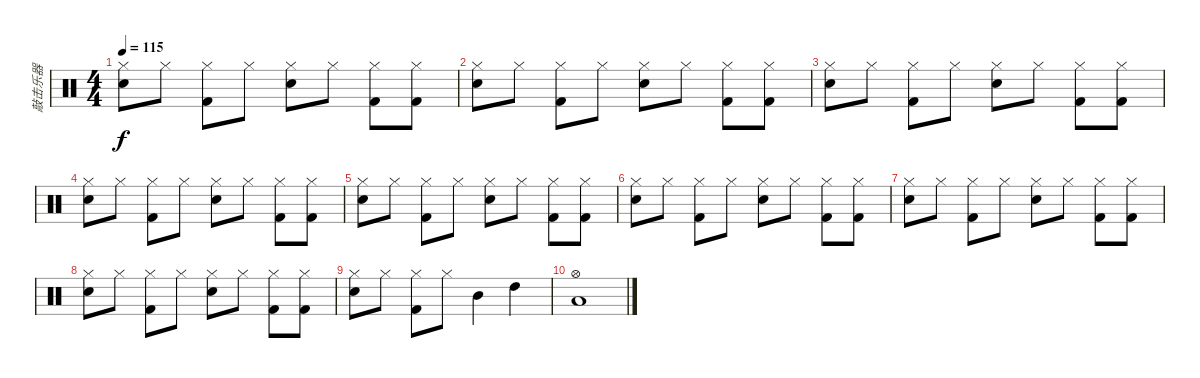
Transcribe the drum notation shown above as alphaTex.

\track ("敲击乐器" "敲击乐器") {instrument percussion}
\staff {score}
\articulation defaults
\ts (4 4)
\tempo 115
\clef neutral
\ks c
("Hi-Hat (closed)" "Electric Snare (hit)").8{dy f} "Hi-Hat (closed)".8 ("Hi-Hat (closed)" "Kick (hit) 2").8 "Hi-Hat (closed)".8 ("Hi-Hat (closed)" "Electric Snare (hit)").8 "Hi-Hat (closed)".8 ("Hi-Hat (closed)" "Kick (hit) 2").8 ("Hi-Hat (closed)" "Kick (hit) 2").8 |
("Hi-Hat (closed)" "Electric Snare (hit)").8 "Hi-Hat (closed)".8 ("Hi-Hat (closed)" "Kick (hit) 2").8 "Hi-Hat (closed)".8 ("Hi-Hat (closed)" "Electric Snare (hit)").8 "Hi-Hat (closed)".8 ("Hi-Hat (closed)" "Kick (hit) 2").8 ("Hi-Hat (closed)" "Kick (hit) 2").8 |
("Hi-Hat (closed)" "Electric Snare (hit)").8 "Hi-Hat (closed)".8 ("Hi-Hat (closed)" "Kick (hit) 2").8 "Hi-Hat (closed)".8 ("Hi-Hat (closed)" "Electric Snare (hit)").8 "Hi-Hat (closed)".8 ("Hi-Hat (closed)" "Kick (hit) 2").8 ("Hi-Hat (closed)" "Kick (hit) 2").8 |
("Hi-Hat (closed)" "Electric Snare (hit)").8 "Hi-Hat (closed)".8 ("Hi-Hat (closed)" "Kick (hit) 2").8 "Hi-Hat (closed)".8 ("Hi-Hat (closed)" "Electric Snare (hit)").8 "Hi-Hat (closed)".8 ("Hi-Hat (closed)" "Kick (hit) 2").8 ("Hi-Hat (closed)" "Kick (hit) 2").8 |
("Hi-Hat (closed)" "Electric Snare (hit)").8 "Hi-Hat (closed)".8 ("Hi-Hat (closed)" "Kick (hit) 2").8 "Hi-Hat (closed)".8 ("Hi-Hat (closed)" "Electric Snare (hit)").8 "Hi-Hat (closed)".8 ("Hi-Hat (closed)" "Kick (hit) 2").8 ("Hi-Hat (closed)" "Kick (hit) 2").8 |
("Hi-Hat (closed)" "Electric Snare (hit)").8 "Hi-Hat (closed)".8 ("Hi-Hat (closed)" "Kick (hit) 2").8 "Hi-Hat (closed)".8 ("Hi-Hat (closed)" "Electric Snare (hit)").8 "Hi-Hat (closed)".8 ("Hi-Hat (closed)" "Kick (hit) 2").8 ("Hi-Hat (closed)" "Kick (hit) 2").8 |
("Hi-Hat (closed)" "Electric Snare (hit)").8 "Hi-Hat (closed)".8 ("Hi-Hat (closed)" "Kick (hit) 2").8 "Hi-Hat (closed)".8 ("Hi-Hat (closed)" "Electric Snare (hit)").8 "Hi-Hat (closed)".8 ("Hi-Hat (closed)" "Kick (hit) 2").8 ("Hi-Hat (closed)" "Kick (hit) 2").8 |
("Hi-Hat (closed)" "Electric Snare (hit)").8 "Hi-Hat (closed)".8 ("Hi-Hat (closed)" "Kick (hit) 2").8 "Hi-Hat (closed)".8 ("Hi-Hat (closed)" "Electric Snare (hit)").8 "Hi-Hat (closed)".8 ("Hi-Hat (closed)" "Kick (hit) 2").8 ("Hi-Hat (closed)" "Kick (hit) 2").8 |
("Hi-Hat (closed)" "Electric Snare (hit)").8 "Hi-Hat (closed)".8 ("Hi-Hat (closed)" "Kick (hit) 2").8 "Hi-Hat (closed)".8 "Mid Tom (hit)".4 "High Tom (hit)".4 |
("Low Floor Tom (hit)" "Hi-Hat (open)").1
